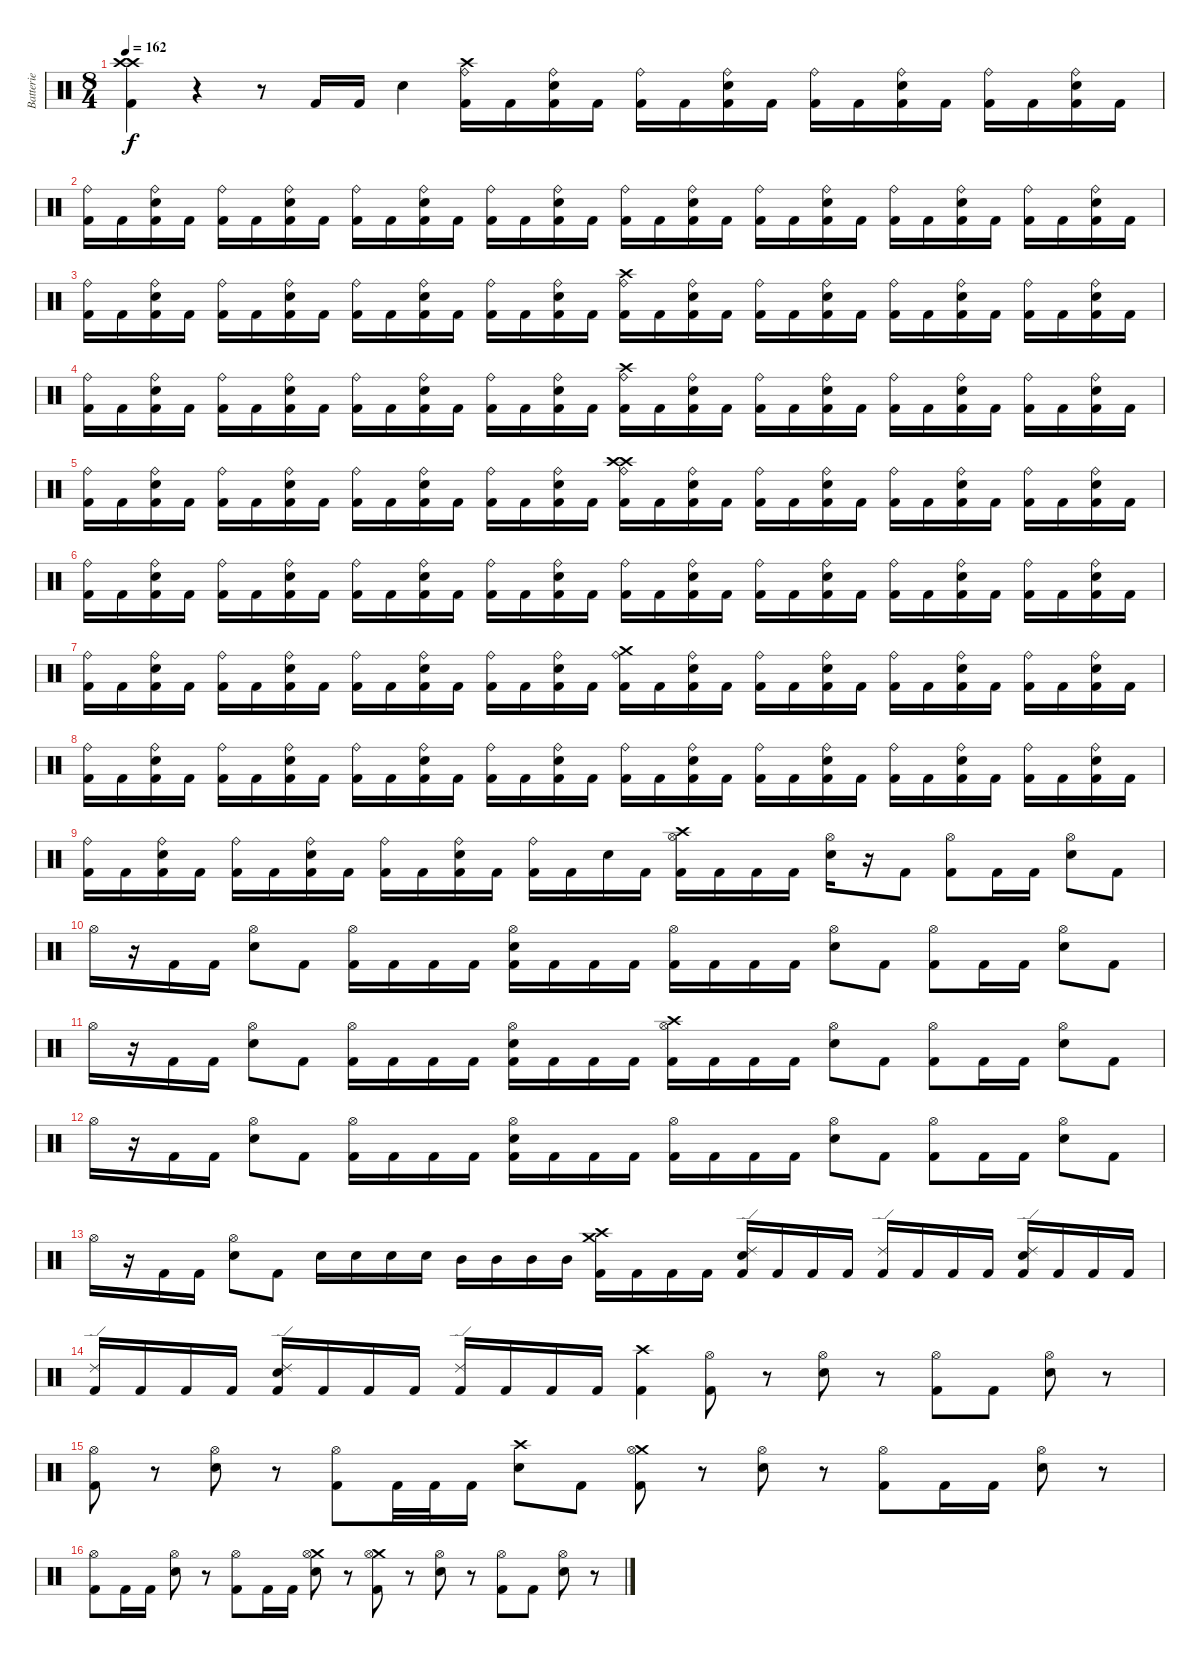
\track ("Batterie" "Batterie") {instrument percussion}
\staff {score}
\articulation defaults
\ts (8 4)
\tempo 162
\clef neutral
\ks c
("Crash high (hit)" "Crash high (hit)" "Kick (hit) 2").4{dy f} r.4 r.8 "Kick (hit) 2".16 "Kick (hit) 2".16 "Electric Snare (hit)".4 ("Crash high (hit)" "Ride (bell)" "Kick (hit) 2").16 "Kick (hit) 2".16 ("Ride (bell)" "Electric Snare (hit)" "Kick (hit) 2").16 "Kick (hit) 2".16 ("Ride (bell)" "Kick (hit) 2").16 "Kick (hit) 2".16 ("Ride (bell)" "Electric Snare (hit)" "Kick (hit) 2").16 "Kick (hit) 2".16 ("Ride (bell)" "Kick (hit) 2").16 "Kick (hit) 2".16 ("Ride (bell)" "Electric Snare (hit)" "Kick (hit) 2").16 "Kick (hit) 2".16 ("Ride (bell)" "Kick (hit) 2").16 "Kick (hit) 2".16 ("Ride (bell)" "Electric Snare (hit)" "Kick (hit) 2").16 "Kick (hit) 2".16 |
("Ride (bell)" "Kick (hit) 2").16 "Kick (hit) 2".16 ("Ride (bell)" "Electric Snare (hit)" "Kick (hit) 2").16 "Kick (hit) 2".16 ("Ride (bell)" "Kick (hit) 2").16 "Kick (hit) 2".16 ("Ride (bell)" "Electric Snare (hit)" "Kick (hit) 2").16 "Kick (hit) 2".16 ("Ride (bell)" "Kick (hit) 2").16 "Kick (hit) 2".16 ("Ride (bell)" "Electric Snare (hit)" "Kick (hit) 2").16 "Kick (hit) 2".16 ("Ride (bell)" "Kick (hit) 2").16 "Kick (hit) 2".16 ("Ride (bell)" "Electric Snare (hit)" "Kick (hit) 2").16 "Kick (hit) 2".16 ("Ride (bell)" "Kick (hit) 2").16 "Kick (hit) 2".16 ("Ride (bell)" "Electric Snare (hit)" "Kick (hit) 2").16 "Kick (hit) 2".16 ("Ride (bell)" "Kick (hit) 2").16 "Kick (hit) 2".16 ("Ride (bell)" "Electric Snare (hit)" "Kick (hit) 2").16 "Kick (hit) 2".16 ("Ride (bell)" "Kick (hit) 2").16 "Kick (hit) 2".16 ("Ride (bell)" "Electric Snare (hit)" "Kick (hit) 2").16 "Kick (hit) 2".16 ("Ride (bell)" "Kick (hit) 2").16 "Kick (hit) 2".16 ("Ride (bell)" "Electric Snare (hit)" "Kick (hit) 2").16 "Kick (hit) 2".16 |
("Ride (bell)" "Kick (hit) 2").16 "Kick (hit) 2".16 ("Ride (bell)" "Electric Snare (hit)" "Kick (hit) 2").16 "Kick (hit) 2".16 ("Ride (bell)" "Kick (hit) 2").16 "Kick (hit) 2".16 ("Ride (bell)" "Electric Snare (hit)" "Kick (hit) 2").16 "Kick (hit) 2".16 ("Ride (bell)" "Kick (hit) 2").16 "Kick (hit) 2".16 ("Ride (bell)" "Electric Snare (hit)" "Kick (hit) 2").16 "Kick (hit) 2".16 ("Ride (bell)" "Kick (hit) 2").16 "Kick (hit) 2".16 ("Ride (bell)" "Electric Snare (hit)" "Kick (hit) 2").16 "Kick (hit) 2".16 ("Crash high (hit)" "Ride (bell)" "Kick (hit) 2").16 "Kick (hit) 2".16 ("Ride (bell)" "Electric Snare (hit)" "Kick (hit) 2").16 "Kick (hit) 2".16 ("Ride (bell)" "Kick (hit) 2").16 "Kick (hit) 2".16 ("Ride (bell)" "Electric Snare (hit)" "Kick (hit) 2").16 "Kick (hit) 2".16 ("Ride (bell)" "Kick (hit) 2").16 "Kick (hit) 2".16 ("Ride (bell)" "Electric Snare (hit)" "Kick (hit) 2").16 "Kick (hit) 2".16 ("Ride (bell)" "Kick (hit) 2").16 "Kick (hit) 2".16 ("Ride (bell)" "Electric Snare (hit)" "Kick (hit) 2").16 "Kick (hit) 2".16 |
("Ride (bell)" "Kick (hit) 2").16 "Kick (hit) 2".16 ("Ride (bell)" "Electric Snare (hit)" "Kick (hit) 2").16 "Kick (hit) 2".16 ("Ride (bell)" "Kick (hit) 2").16 "Kick (hit) 2".16 ("Ride (bell)" "Electric Snare (hit)" "Kick (hit) 2").16 "Kick (hit) 2".16 ("Ride (bell)" "Kick (hit) 2").16 "Kick (hit) 2".16 ("Ride (bell)" "Electric Snare (hit)" "Kick (hit) 2").16 "Kick (hit) 2".16 ("Ride (bell)" "Kick (hit) 2").16 "Kick (hit) 2".16 ("Ride (bell)" "Electric Snare (hit)" "Kick (hit) 2").16 "Kick (hit) 2".16 ("Crash high (hit)" "Ride (bell)" "Kick (hit) 2").16 "Kick (hit) 2".16 ("Ride (bell)" "Electric Snare (hit)" "Kick (hit) 2").16 "Kick (hit) 2".16 ("Ride (bell)" "Kick (hit) 2").16 "Kick (hit) 2".16 ("Ride (bell)" "Electric Snare (hit)" "Kick (hit) 2").16 "Kick (hit) 2".16 ("Ride (bell)" "Kick (hit) 2").16 "Kick (hit) 2".16 ("Ride (bell)" "Electric Snare (hit)" "Kick (hit) 2").16 "Kick (hit) 2".16 ("Ride (bell)" "Kick (hit) 2").16 "Kick (hit) 2".16 ("Ride (bell)" "Electric Snare (hit)" "Kick (hit) 2").16 "Kick (hit) 2".16 |
("Ride (bell)" "Kick (hit) 2").16 "Kick (hit) 2".16 ("Ride (bell)" "Electric Snare (hit)" "Kick (hit) 2").16 "Kick (hit) 2".16 ("Ride (bell)" "Kick (hit) 2").16 "Kick (hit) 2".16 ("Ride (bell)" "Electric Snare (hit)" "Kick (hit) 2").16 "Kick (hit) 2".16 ("Ride (bell)" "Kick (hit) 2").16 "Kick (hit) 2".16 ("Ride (bell)" "Electric Snare (hit)" "Kick (hit) 2").16 "Kick (hit) 2".16 ("Ride (bell)" "Kick (hit) 2").16 "Kick (hit) 2".16 ("Ride (bell)" "Electric Snare (hit)" "Kick (hit) 2").16 "Kick (hit) 2".16 ("Crash high (hit)" "Crash high (hit)" "Ride (bell)" "Kick (hit) 2").16 "Kick (hit) 2".16 ("Ride (bell)" "Electric Snare (hit)" "Kick (hit) 2").16 "Kick (hit) 2".16 ("Ride (bell)" "Kick (hit) 2").16 "Kick (hit) 2".16 ("Ride (bell)" "Electric Snare (hit)" "Kick (hit) 2").16 "Kick (hit) 2".16 ("Ride (bell)" "Kick (hit) 2").16 "Kick (hit) 2".16 ("Ride (bell)" "Electric Snare (hit)" "Kick (hit) 2").16 "Kick (hit) 2".16 ("Ride (bell)" "Kick (hit) 2").16 "Kick (hit) 2".16 ("Ride (bell)" "Electric Snare (hit)" "Kick (hit) 2").16 "Kick (hit) 2".16 |
("Ride (bell)" "Kick (hit) 2").16 "Kick (hit) 2".16 ("Ride (bell)" "Electric Snare (hit)" "Kick (hit) 2").16 "Kick (hit) 2".16 ("Ride (bell)" "Kick (hit) 2").16 "Kick (hit) 2".16 ("Ride (bell)" "Electric Snare (hit)" "Kick (hit) 2").16 "Kick (hit) 2".16 ("Ride (bell)" "Kick (hit) 2").16 "Kick (hit) 2".16 ("Ride (bell)" "Electric Snare (hit)" "Kick (hit) 2").16 "Kick (hit) 2".16 ("Ride (bell)" "Kick (hit) 2").16 "Kick (hit) 2".16 ("Ride (bell)" "Electric Snare (hit)" "Kick (hit) 2").16 "Kick (hit) 2".16 ("Ride (bell)" "Kick (hit) 2").16 "Kick (hit) 2".16 ("Ride (bell)" "Electric Snare (hit)" "Kick (hit) 2").16 "Kick (hit) 2".16 ("Ride (bell)" "Kick (hit) 2").16 "Kick (hit) 2".16 ("Ride (bell)" "Electric Snare (hit)" "Kick (hit) 2").16 "Kick (hit) 2".16 ("Ride (bell)" "Kick (hit) 2").16 "Kick (hit) 2".16 ("Ride (bell)" "Electric Snare (hit)" "Kick (hit) 2").16 "Kick (hit) 2".16 ("Ride (bell)" "Kick (hit) 2").16 "Kick (hit) 2".16 ("Ride (bell)" "Electric Snare (hit)" "Kick (hit) 2").16 "Kick (hit) 2".16 |
("Ride (bell)" "Kick (hit) 2").16 "Kick (hit) 2".16 ("Ride (bell)" "Electric Snare (hit)" "Kick (hit) 2").16 "Kick (hit) 2".16 ("Ride (bell)" "Kick (hit) 2").16 "Kick (hit) 2".16 ("Ride (bell)" "Electric Snare (hit)" "Kick (hit) 2").16 "Kick (hit) 2".16 ("Ride (bell)" "Kick (hit) 2").16 "Kick (hit) 2".16 ("Ride (bell)" "Electric Snare (hit)" "Kick (hit) 2").16 "Kick (hit) 2".16 ("Ride (bell)" "Kick (hit) 2").16 "Kick (hit) 2".16 ("Ride (bell)" "Electric Snare (hit)" "Kick (hit) 2").16 "Kick (hit) 2".16 ("Crash medium (hit)" "Ride (bell)" "Kick (hit) 2").16 "Kick (hit) 2".16 ("Ride (bell)" "Electric Snare (hit)" "Kick (hit) 2").16 "Kick (hit) 2".16 ("Ride (bell)" "Kick (hit) 2").16 "Kick (hit) 2".16 ("Ride (bell)" "Electric Snare (hit)" "Kick (hit) 2").16 "Kick (hit) 2".16 ("Ride (bell)" "Kick (hit) 2").16 "Kick (hit) 2".16 ("Ride (bell)" "Electric Snare (hit)" "Kick (hit) 2").16 "Kick (hit) 2".16 ("Ride (bell)" "Kick (hit) 2").16 "Kick (hit) 2".16 ("Ride (bell)" "Electric Snare (hit)" "Kick (hit) 2").16 "Kick (hit) 2".16 |
("Ride (bell)" "Kick (hit) 2").16 "Kick (hit) 2".16 ("Ride (bell)" "Electric Snare (hit)" "Kick (hit) 2").16 "Kick (hit) 2".16 ("Ride (bell)" "Kick (hit) 2").16 "Kick (hit) 2".16 ("Ride (bell)" "Electric Snare (hit)" "Kick (hit) 2").16 "Kick (hit) 2".16 ("Ride (bell)" "Kick (hit) 2").16 "Kick (hit) 2".16 ("Ride (bell)" "Electric Snare (hit)" "Kick (hit) 2").16 "Kick (hit) 2".16 ("Ride (bell)" "Kick (hit) 2").16 "Kick (hit) 2".16 ("Ride (bell)" "Electric Snare (hit)" "Kick (hit) 2").16 "Kick (hit) 2".16 ("Ride (bell)" "Kick (hit) 2").16 "Kick (hit) 2".16 ("Ride (bell)" "Electric Snare (hit)" "Kick (hit) 2").16 "Kick (hit) 2".16 ("Ride (bell)" "Kick (hit) 2").16 "Kick (hit) 2".16 ("Ride (bell)" "Electric Snare (hit)" "Kick (hit) 2").16 "Kick (hit) 2".16 ("Ride (bell)" "Kick (hit) 2").16 "Kick (hit) 2".16 ("Ride (bell)" "Electric Snare (hit)" "Kick (hit) 2").16 "Kick (hit) 2".16 ("Ride (bell)" "Kick (hit) 2").16 "Kick (hit) 2".16 ("Ride (bell)" "Electric Snare (hit)" "Kick (hit) 2").16 "Kick (hit) 2".16 |
("Ride (bell)" "Kick (hit) 2").16 "Kick (hit) 2".16 ("Ride (bell)" "Electric Snare (hit)" "Kick (hit) 2").16 "Kick (hit) 2".16 ("Ride (bell)" "Kick (hit) 2").16 "Kick (hit) 2".16 ("Ride (bell)" "Electric Snare (hit)" "Kick (hit) 2").16 "Kick (hit) 2".16 ("Ride (bell)" "Kick (hit) 2").16 "Kick (hit) 2".16 ("Ride (bell)" "Electric Snare (hit)" "Kick (hit) 2").16 "Kick (hit) 2".16 ("Ride (bell)" "Kick (hit) 2").16 "Kick (hit) 2".16 "Electric Snare (hit)".16 "Kick (hit) 2".16 ("Crash high (hit)" "Hi-Hat (open)" "Kick (hit) 2").16 "Kick (hit) 2".16 "Kick (hit) 2".16 "Kick (hit) 2".16 ("Hi-Hat (open)" "Electric Snare (hit)").16 r.16 "Kick (hit) 2".8 ("Hi-Hat (open)" "Kick (hit) 2").8 "Kick (hit) 2".16 "Kick (hit) 2".16 ("Hi-Hat (open)" "Electric Snare (hit)").8 "Kick (hit) 2".8 |
"Hi-Hat (open)".16 r.16 "Kick (hit) 2".16 "Kick (hit) 2".16 ("Hi-Hat (open)" "Electric Snare (hit)").8 "Kick (hit) 2".8 ("Hi-Hat (open)" "Kick (hit) 2").16 "Kick (hit) 2".16 "Kick (hit) 2".16 "Kick (hit) 2".16 ("Hi-Hat (open)" "Electric Snare (hit)" "Kick (hit) 2").16 "Kick (hit) 2".16 "Kick (hit) 2".16 "Kick (hit) 2".16 ("Hi-Hat (open)" "Kick (hit) 2").16 "Kick (hit) 2".16 "Kick (hit) 2".16 "Kick (hit) 2".16 ("Hi-Hat (open)" "Electric Snare (hit)").8 "Kick (hit) 2".8 ("Hi-Hat (open)" "Kick (hit) 2").8 "Kick (hit) 2".16 "Kick (hit) 2".16 ("Hi-Hat (open)" "Electric Snare (hit)").8 "Kick (hit) 2".8 |
"Hi-Hat (open)".16 r.16 "Kick (hit) 2".16 "Kick (hit) 2".16 ("Hi-Hat (open)" "Electric Snare (hit)").8 "Kick (hit) 2".8 ("Hi-Hat (open)" "Kick (hit) 2").16 "Kick (hit) 2".16 "Kick (hit) 2".16 "Kick (hit) 2".16 ("Hi-Hat (open)" "Electric Snare (hit)" "Kick (hit) 2").16 "Kick (hit) 2".16 "Kick (hit) 2".16 "Kick (hit) 2".16 ("Crash high (hit)" "Hi-Hat (open)" "Kick (hit) 2").16 "Kick (hit) 2".16 "Kick (hit) 2".16 "Kick (hit) 2".16 ("Hi-Hat (open)" "Electric Snare (hit)").8 "Kick (hit) 2".8 ("Hi-Hat (open)" "Kick (hit) 2").8 "Kick (hit) 2".16 "Kick (hit) 2".16 ("Hi-Hat (open)" "Electric Snare (hit)").8 "Kick (hit) 2".8 |
"Hi-Hat (open)".16 r.16 "Kick (hit) 2".16 "Kick (hit) 2".16 ("Hi-Hat (open)" "Electric Snare (hit)").8 "Kick (hit) 2".8 ("Hi-Hat (open)" "Kick (hit) 2").16 "Kick (hit) 2".16 "Kick (hit) 2".16 "Kick (hit) 2".16 ("Hi-Hat (open)" "Electric Snare (hit)" "Kick (hit) 2").16 "Kick (hit) 2".16 "Kick (hit) 2".16 "Kick (hit) 2".16 ("Hi-Hat (open)" "Kick (hit) 2").16 "Kick (hit) 2".16 "Kick (hit) 2".16 "Kick (hit) 2".16 ("Hi-Hat (open)" "Electric Snare (hit)").8 "Kick (hit) 2".8 ("Hi-Hat (open)" "Kick (hit) 2").8 "Kick (hit) 2".16 "Kick (hit) 2".16 ("Hi-Hat (open)" "Electric Snare (hit)").8 "Kick (hit) 2".8 |
"Hi-Hat (open)".16 r.16 "Kick (hit) 2".16 "Kick (hit) 2".16 ("Hi-Hat (open)" "Electric Snare (hit)").8 "Kick (hit) 2".8 "Electric Snare (hit)".16 "Electric Snare (hit)".16 "Electric Snare (hit)".16 "Electric Snare (hit)".16 "Mid Tom (hit)".16 "Mid Tom (hit)".16 "Mid Tom (hit)".16 "Mid Tom (hit)".16 ("Crash high (hit)" "Crash medium (hit)" "Kick (hit) 2").16 "Kick (hit) 2".16 "Kick (hit) 2".16 "Kick (hit) 2".16 ("Ride (edge) 2" "Electric Snare (hit)" "Kick (hit) 2").16 "Kick (hit) 2".16 "Kick (hit) 2".16 "Kick (hit) 2".16 ("Ride (edge) 2" "Kick (hit) 2").16 "Kick (hit) 2".16 "Kick (hit) 2".16 "Kick (hit) 2".16 ("Ride (edge) 2" "Electric Snare (hit)" "Kick (hit) 2").16 "Kick (hit) 2".16 "Kick (hit) 2".16 "Kick (hit) 2".16 |
("Ride (edge) 2" "Kick (hit) 2").16 "Kick (hit) 2".16 "Kick (hit) 2".16 "Kick (hit) 2".16 ("Ride (edge) 2" "Electric Snare (hit)" "Kick (hit) 2").16 "Kick (hit) 2".16 "Kick (hit) 2".16 "Kick (hit) 2".16 ("Ride (edge) 2" "Kick (hit) 2").16 "Kick (hit) 2".16 "Kick (hit) 2".16 "Kick (hit) 2".16 ("Crash high (hit)" "Kick (hit) 2").4 ("Hi-Hat (open)" "Kick (hit) 2").8 r.8 ("Hi-Hat (open)" "Electric Snare (hit)").8 r.8 ("Hi-Hat (open)" "Kick (hit) 2").8 "Kick (hit) 2".8 ("Hi-Hat (open)" "Electric Snare (hit)").8 r.8 |
("Hi-Hat (open)" "Kick (hit) 2").8 r.8 ("Hi-Hat (open)" "Electric Snare (hit)").8 r.8 ("Hi-Hat (open)" "Kick (hit) 2").8 "Kick (hit) 2".32 "Kick (hit) 2".32 "Kick (hit) 2".16 ("Crash high (hit)" "Electric Snare (hit)").8 "Kick (hit) 2".8 ("Crash medium (hit)" "Hi-Hat (open)" "Kick (hit) 2").8 r.8 ("Hi-Hat (open)" "Electric Snare (hit)").8 r.8 ("Hi-Hat (open)" "Kick (hit) 2").8 "Kick (hit) 2".16 "Kick (hit) 2".16 ("Hi-Hat (open)" "Electric Snare (hit)").8 r.8 |
("Hi-Hat (open)" "Kick (hit) 2").8 "Kick (hit) 2".16 "Kick (hit) 2".16 ("Hi-Hat (open)" "Electric Snare (hit)").8 r.8 ("Hi-Hat (open)" "Kick (hit) 2").8 "Kick (hit) 2".16 "Kick (hit) 2".16 ("Crash medium (hit)" "Hi-Hat (open)" "Electric Snare (hit)").8 r.8 ("Crash medium (hit)" "Hi-Hat (open)" "Kick (hit) 2").8 r.8 ("Hi-Hat (open)" "Electric Snare (hit)").8 r.8 ("Hi-Hat (open)" "Kick (hit) 2").8 "Kick (hit) 2".8 ("Hi-Hat (open)" "Electric Snare (hit)").8 r.8
